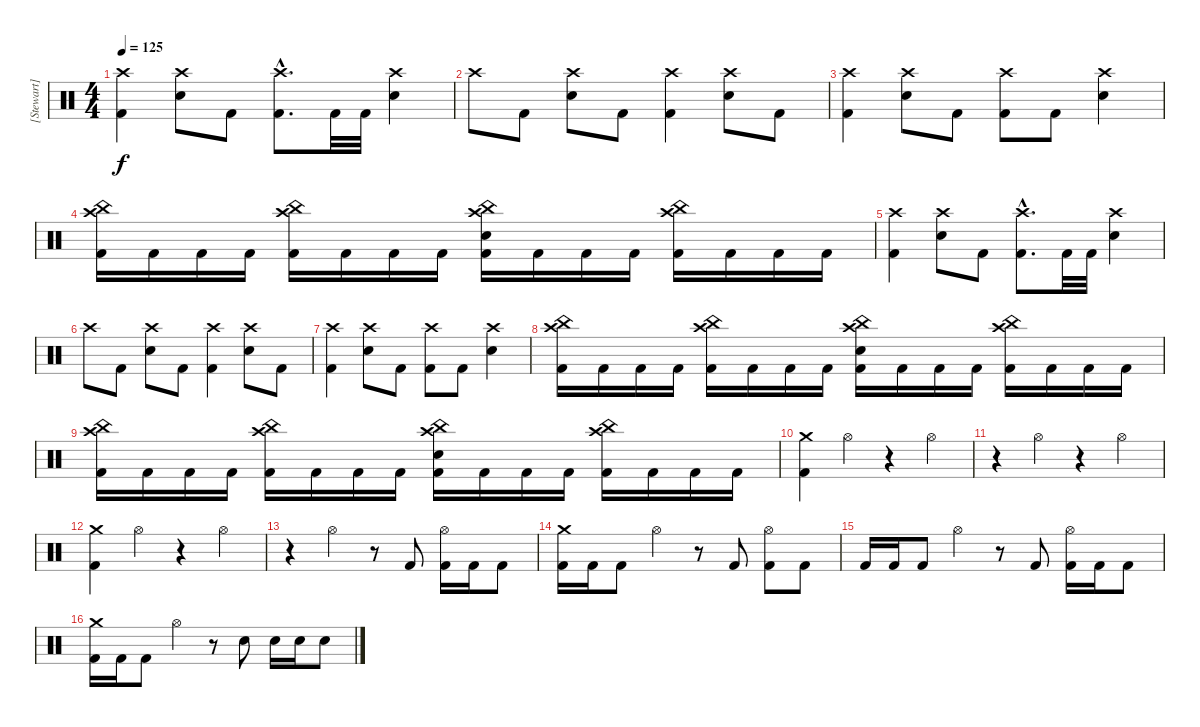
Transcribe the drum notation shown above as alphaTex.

\track ("[Stewart]" "[Stewart]") {instrument percussion}
\staff {score}
\articulation defaults
\ts (4 4)
\tempo 125
\clef neutral
\ks c
("Crash high (hit)" "Kick (hit) 2").4{dy f} ("Crash high (hit)" "Electric Snare (hit)").8 "Kick (hit) 2".8 ("Crash high (hit)"{hac} "Kick (hit) 2"{hac}).8{d} "Kick (hit) 2".32 "Kick (hit) 2".32 ("Crash high (hit)" "Electric Snare (hit)").4 |
"Crash high (hit)".8 "Kick (hit) 2".8 ("Crash high (hit)" "Electric Snare (hit)").8 "Kick (hit) 2".8 ("Crash high (hit)" "Kick (hit) 2").4 ("Crash high (hit)" "Electric Snare (hit)").8 "Kick (hit) 2".8 |
("Crash high (hit)" "Kick (hit) 2").4 ("Crash high (hit)" "Electric Snare (hit)").8 "Kick (hit) 2".8 ("Crash high (hit)" "Kick (hit) 2").8 "Kick (hit) 2".8 ("Crash high (hit)" "Electric Snare (hit)").4 |
("China (hit)" "Crash high (hit)" "Kick (hit) 2").16 "Kick (hit) 2".16 "Kick (hit) 2".16 "Kick (hit) 2".16 ("China (hit)" "Crash high (hit)" "Kick (hit) 2").16 "Kick (hit) 2".16 "Kick (hit) 2".16 "Kick (hit) 2".16 ("China (hit)" "Crash high (hit)" "Electric Snare (hit)" "Kick (hit) 2").16 "Kick (hit) 2".16 "Kick (hit) 2".16 "Kick (hit) 2".16 ("China (hit)" "Crash high (hit)" "Kick (hit) 2").16 "Kick (hit) 2".16 "Kick (hit) 2".16 "Kick (hit) 2".16 |
("Crash high (hit)" "Kick (hit) 2").4 ("Crash high (hit)" "Electric Snare (hit)").8 "Kick (hit) 2".8 ("Crash high (hit)"{hac} "Kick (hit) 2"{hac}).8{d} "Kick (hit) 2".32 "Kick (hit) 2".32 ("Crash high (hit)" "Electric Snare (hit)").4 |
"Crash high (hit)".8 "Kick (hit) 2".8 ("Crash high (hit)" "Electric Snare (hit)").8 "Kick (hit) 2".8 ("Crash high (hit)" "Kick (hit) 2").4 ("Crash high (hit)" "Electric Snare (hit)").8 "Kick (hit) 2".8 |
("Crash high (hit)" "Kick (hit) 2").4 ("Crash high (hit)" "Electric Snare (hit)").8 "Kick (hit) 2".8 ("Crash high (hit)" "Kick (hit) 2").8 "Kick (hit) 2".8 ("Crash high (hit)" "Electric Snare (hit)").4 |
("China (hit)" "Crash high (hit)" "Kick (hit) 2").16 "Kick (hit) 2".16 "Kick (hit) 2".16 "Kick (hit) 2".16 ("China (hit)" "Crash high (hit)" "Kick (hit) 2").16 "Kick (hit) 2".16 "Kick (hit) 2".16 "Kick (hit) 2".16 ("China (hit)" "Crash high (hit)" "Electric Snare (hit)" "Kick (hit) 2").16 "Kick (hit) 2".16 "Kick (hit) 2".16 "Kick (hit) 2".16 ("China (hit)" "Crash high (hit)" "Kick (hit) 2").16 "Kick (hit) 2".16 "Kick (hit) 2".16 "Kick (hit) 2".16 |
("China (hit)" "Crash high (hit)" "Kick (hit) 2").16 "Kick (hit) 2".16 "Kick (hit) 2".16 "Kick (hit) 2".16 ("China (hit)" "Crash high (hit)" "Kick (hit) 2").16 "Kick (hit) 2".16 "Kick (hit) 2".16 "Kick (hit) 2".16 ("China (hit)" "Crash high (hit)" "Electric Snare (hit)" "Kick (hit) 2").16 "Kick (hit) 2".16 "Kick (hit) 2".16 "Kick (hit) 2".16 ("China (hit)" "Crash high (hit)" "Kick (hit) 2").16 "Kick (hit) 2".16 "Kick (hit) 2".16 "Kick (hit) 2".16 |
("Crash medium (hit)" "Kick (hit) 2").4 "Hi-Hat (open)".4 r.4 "Hi-Hat (open)".4 |
r.4 "Hi-Hat (open)".4 r.4 "Hi-Hat (open)".4 |
("Crash medium (hit)" "Kick (hit) 2").4 "Hi-Hat (open)".4 r.4 "Hi-Hat (open)".4 |
r.4 "Hi-Hat (open)".4 r.8 "Kick (hit) 2".8 ("Hi-Hat (open)" "Kick (hit) 2").16 "Kick (hit) 2".16 "Kick (hit) 2".8 |
("Crash medium (hit)" "Kick (hit) 2").16 "Kick (hit) 2".16 "Kick (hit) 2".8 "Hi-Hat (open)".4 r.8 "Kick (hit) 2".8 ("Hi-Hat (open)" "Kick (hit) 2").8 "Kick (hit) 2".8 |
"Kick (hit) 2".16 "Kick (hit) 2".16 "Kick (hit) 2".8 "Hi-Hat (open)".4 r.8 "Kick (hit) 2".8 ("Hi-Hat (open)" "Kick (hit) 2").16 "Kick (hit) 2".16 "Kick (hit) 2".8 |
("Crash medium (hit)" "Kick (hit) 2").16 "Kick (hit) 2".16 "Kick (hit) 2".8 "Hi-Hat (open)".4 r.8 "Electric Snare (hit)".8 "Electric Snare (hit)".16 "Electric Snare (hit)".16 "Electric Snare (hit)".8
